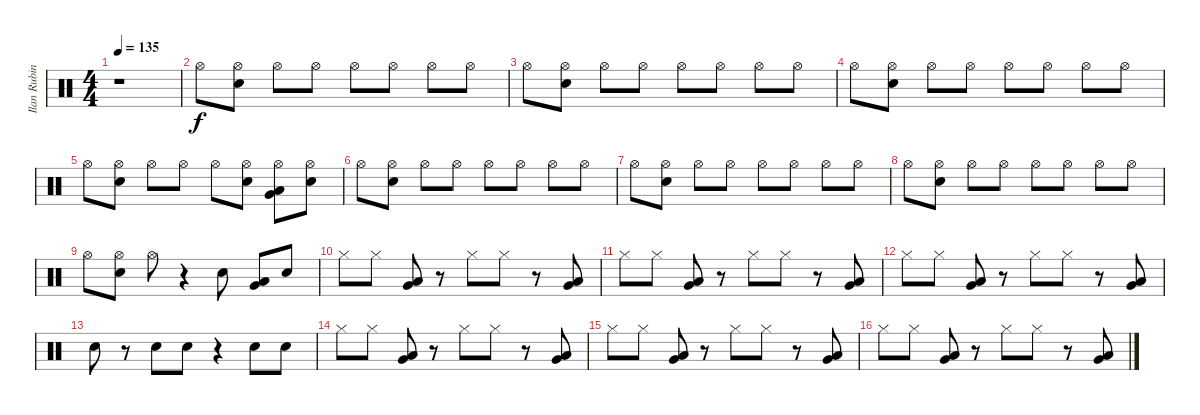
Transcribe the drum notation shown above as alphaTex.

\track ("Ilan Rubin" "Ilan Rubin") {instrument percussion}
\staff {score}
\articulation defaults
\ts (4 4)
\tempo 135
\clef neutral
\ks c
r.1{dy f} |
"Hi-Hat (open)".8 ("Hi-Hat (open)" "Electric Snare (hit)").8 "Hi-Hat (open)".8 "Hi-Hat (open)".8 "Hi-Hat (open)".8 "Hi-Hat (open)".8 "Hi-Hat (open)".8 "Hi-Hat (open)".8 |
"Hi-Hat (open)".8 ("Hi-Hat (open)" "Electric Snare (hit)").8 "Hi-Hat (open)".8 "Hi-Hat (open)".8 "Hi-Hat (open)".8 "Hi-Hat (open)".8 "Hi-Hat (open)".8 "Hi-Hat (open)".8 |
"Hi-Hat (open)".8 ("Hi-Hat (open)" "Electric Snare (hit)").8 "Hi-Hat (open)".8 "Hi-Hat (open)".8 "Hi-Hat (open)".8 "Hi-Hat (open)".8 "Hi-Hat (open)".8 "Hi-Hat (open)".8 |
"Hi-Hat (open)".8 ("Hi-Hat (open)" "Electric Snare (hit)").8 "Hi-Hat (open)".8 "Hi-Hat (open)".8 "Hi-Hat (open)".8 ("Hi-Hat (open)" "Electric Snare (hit)").8 ("Hi-Hat (open)" "Very Low Tom (hit)" "Low Tom (hit)").8 ("Hi-Hat (open)" "Electric Snare (hit)").8 |
"Hi-Hat (open)".8 ("Hi-Hat (open)" "Electric Snare (hit)").8 "Hi-Hat (open)".8 "Hi-Hat (open)".8 "Hi-Hat (open)".8 "Hi-Hat (open)".8 "Hi-Hat (open)".8 "Hi-Hat (open)".8 |
"Hi-Hat (open)".8 ("Hi-Hat (open)" "Electric Snare (hit)").8 "Hi-Hat (open)".8 "Hi-Hat (open)".8 "Hi-Hat (open)".8 "Hi-Hat (open)".8 "Hi-Hat (open)".8 "Hi-Hat (open)".8 |
"Hi-Hat (open)".8 ("Hi-Hat (open)" "Electric Snare (hit)").8 "Hi-Hat (open)".8 "Hi-Hat (open)".8 "Hi-Hat (open)".8 "Hi-Hat (open)".8 "Hi-Hat (open)".8 "Hi-Hat (open)".8 |
"Hi-Hat (open)".8 ("Hi-Hat (open)" "Electric Snare (hit)").8 "Hi-Hat (open)".8 r.4 "Electric Snare (hit)".8 ("Very Low Tom (hit)" "Low Tom (hit)").8 "Electric Snare (hit)".8 |
"Hi-Hat (closed)".8 "Hi-Hat (closed)".8 ("Very Low Tom (hit)" "Low Tom (hit)").8 r.8 "Hi-Hat (closed)".8 "Hi-Hat (closed)".8 r.8 ("Very Low Tom (hit)" "Low Tom (hit)").8 |
"Hi-Hat (closed)".8 "Hi-Hat (closed)".8 ("Very Low Tom (hit)" "Low Tom (hit)").8 r.8 "Hi-Hat (closed)".8 "Hi-Hat (closed)".8 r.8 ("Very Low Tom (hit)" "Low Tom (hit)").8 |
"Hi-Hat (closed)".8 "Hi-Hat (closed)".8 ("Very Low Tom (hit)" "Low Tom (hit)").8 r.8 "Hi-Hat (closed)".8 "Hi-Hat (closed)".8 r.8 ("Very Low Tom (hit)" "Low Tom (hit)").8 |
"Electric Snare (hit)".8 r.8 "Snare (hit) 2".8 "Electric Snare (hit)".8 r.4 "Electric Snare (hit)".8 "Electric Snare (hit)".8 |
"Hi-Hat (closed)".8 "Hi-Hat (closed)".8 ("Very Low Tom (hit)" "Low Tom (hit)").8 r.8 "Hi-Hat (closed)".8 "Hi-Hat (closed)".8 r.8 ("Very Low Tom (hit)" "Low Tom (hit)").8 |
"Hi-Hat (closed)".8 "Hi-Hat (closed)".8 ("Very Low Tom (hit)" "Low Tom (hit)").8 r.8 "Hi-Hat (closed)".8 "Hi-Hat (closed)".8 r.8 ("Very Low Tom (hit)" "Low Tom (hit)").8 |
"Hi-Hat (closed)".8 "Hi-Hat (closed)".8 ("Very Low Tom (hit)" "Low Tom (hit)").8 r.8 "Hi-Hat (closed)".8 "Hi-Hat (closed)".8 r.8 ("Very Low Tom (hit)" "Low Tom (hit)").8
